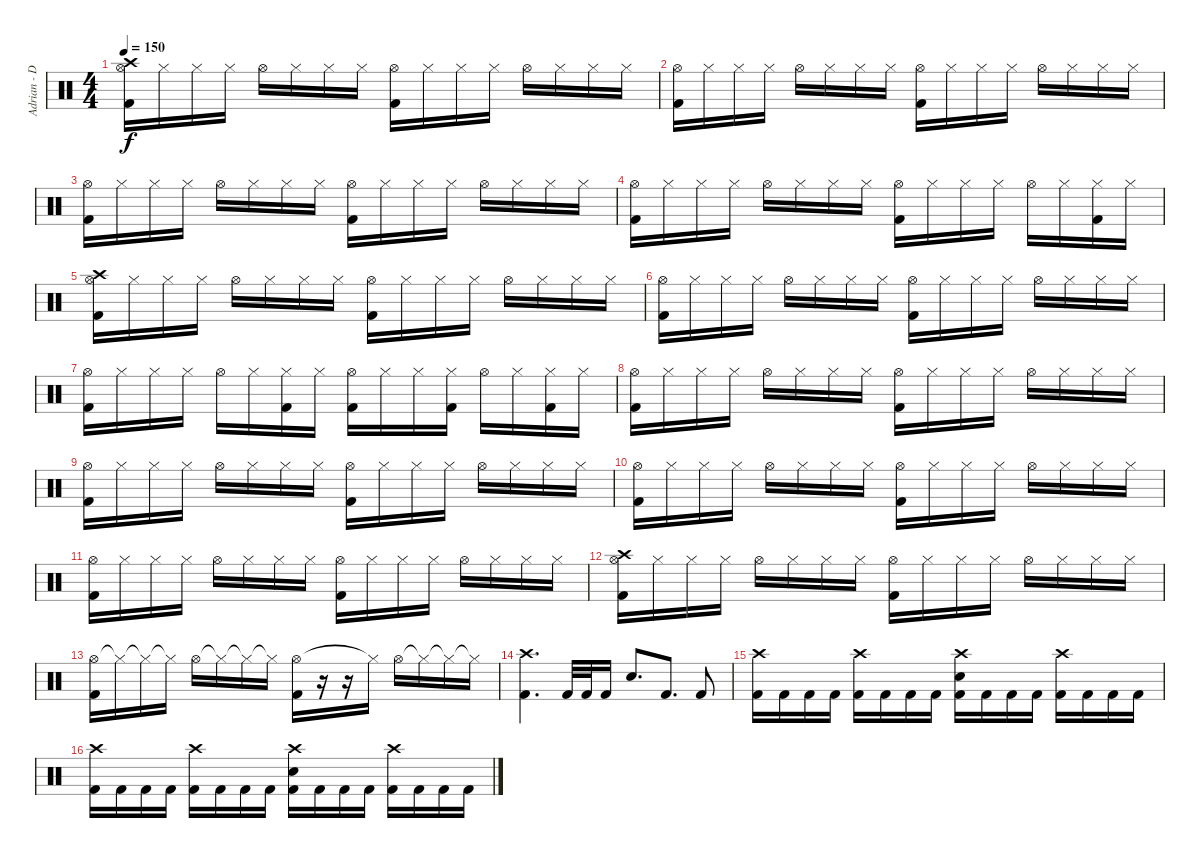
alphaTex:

\track ("Adrian - Drums" "Adrian - D") {instrument percussion}
\staff {score}
\articulation defaults
\ts (4 4)
\tempo 150
\clef neutral
\ks c
("Crash high (hit)" "Hi-Hat (open)" "Kick (hit) 2").16{dy f volume 11} "Hi-Hat (closed)".16 "Hi-Hat (closed)".16 "Hi-Hat (closed)".16 "Hi-Hat (open)".16 "Hi-Hat (closed)".16 "Hi-Hat (closed)".16 "Hi-Hat (closed)".16 ("Hi-Hat (open)" "Kick (hit) 2").16 "Hi-Hat (closed)".16 "Hi-Hat (closed)".16 "Hi-Hat (closed)".16 "Hi-Hat (open)".16 "Hi-Hat (closed)".16 "Hi-Hat (closed)".16 "Hi-Hat (closed)".16 |
("Hi-Hat (open)" "Kick (hit) 2").16 "Hi-Hat (closed)".16 "Hi-Hat (closed)".16 "Hi-Hat (closed)".16 "Hi-Hat (open)".16 "Hi-Hat (closed)".16 "Hi-Hat (closed)".16 "Hi-Hat (closed)".16 ("Hi-Hat (open)" "Kick (hit) 2").16 "Hi-Hat (closed)".16 "Hi-Hat (closed)".16 "Hi-Hat (closed)".16 "Hi-Hat (open)".16 "Hi-Hat (closed)".16 "Hi-Hat (closed)".16 "Hi-Hat (closed)".16 |
("Hi-Hat (open)" "Kick (hit) 2").16 "Hi-Hat (closed)".16 "Hi-Hat (closed)".16 "Hi-Hat (closed)".16 "Hi-Hat (open)".16 "Hi-Hat (closed)".16 "Hi-Hat (closed)".16 "Hi-Hat (closed)".16 ("Hi-Hat (open)" "Kick (hit) 2").16 "Hi-Hat (closed)".16 "Hi-Hat (closed)".16 "Hi-Hat (closed)".16 "Hi-Hat (open)".16 "Hi-Hat (closed)".16 "Hi-Hat (closed)".16 "Hi-Hat (closed)".16 |
("Hi-Hat (open)" "Kick (hit) 2").16 "Hi-Hat (closed)".16 "Hi-Hat (closed)".16 "Hi-Hat (closed)".16 "Hi-Hat (open)".16 "Hi-Hat (closed)".16 "Hi-Hat (closed)".16 "Hi-Hat (closed)".16 ("Hi-Hat (open)" "Kick (hit) 2").16 "Hi-Hat (closed)".16 "Hi-Hat (closed)".16 "Hi-Hat (closed)".16 "Hi-Hat (open)".16 "Hi-Hat (closed)".16 ("Hi-Hat (closed)" "Kick (hit) 2").16 "Hi-Hat (closed)".16 |
("Crash high (hit)" "Hi-Hat (open)" "Kick (hit) 2").16 "Hi-Hat (closed)".16 "Hi-Hat (closed)".16 "Hi-Hat (closed)".16 "Hi-Hat (open)".16 "Hi-Hat (closed)".16 "Hi-Hat (closed)".16 "Hi-Hat (closed)".16 ("Hi-Hat (open)" "Kick (hit) 2").16 "Hi-Hat (closed)".16 "Hi-Hat (closed)".16 "Hi-Hat (closed)".16 "Hi-Hat (open)".16 "Hi-Hat (closed)".16 "Hi-Hat (closed)".16 "Hi-Hat (closed)".16 |
("Hi-Hat (open)" "Kick (hit) 2").16 "Hi-Hat (closed)".16 "Hi-Hat (closed)".16 "Hi-Hat (closed)".16 "Hi-Hat (open)".16 "Hi-Hat (closed)".16 "Hi-Hat (closed)".16 "Hi-Hat (closed)".16 ("Hi-Hat (open)" "Kick (hit) 2").16 "Hi-Hat (closed)".16 "Hi-Hat (closed)".16 "Hi-Hat (closed)".16 "Hi-Hat (open)".16 "Hi-Hat (closed)".16 "Hi-Hat (closed)".16 "Hi-Hat (closed)".16 |
("Hi-Hat (open)" "Kick (hit) 2").16 "Hi-Hat (closed)".16 "Hi-Hat (closed)".16 "Hi-Hat (closed)".16 "Hi-Hat (open)".16 "Hi-Hat (closed)".16 ("Hi-Hat (closed)" "Kick (hit) 2").16 "Hi-Hat (closed)".16 ("Hi-Hat (open)" "Kick (hit) 2").16 "Hi-Hat (closed)".16 "Hi-Hat (closed)".16 ("Hi-Hat (closed)" "Kick (hit) 2").16 "Hi-Hat (open)".16 "Hi-Hat (closed)".16 ("Hi-Hat (closed)" "Kick (hit) 2").16 "Hi-Hat (closed)".16 |
("Hi-Hat (open)" "Kick (hit) 2").16 "Hi-Hat (closed)".16 "Hi-Hat (closed)".16 "Hi-Hat (closed)".16 "Hi-Hat (open)".16 "Hi-Hat (closed)".16 "Hi-Hat (closed)".16 "Hi-Hat (closed)".16 ("Hi-Hat (open)" "Kick (hit) 2").16 "Hi-Hat (closed)".16 "Hi-Hat (closed)".16 "Hi-Hat (closed)".16 "Hi-Hat (open)".16 "Hi-Hat (closed)".16 "Hi-Hat (closed)".16 "Hi-Hat (closed)".16 |
("Hi-Hat (open)" "Kick (hit) 2").16 "Hi-Hat (closed)".16 "Hi-Hat (closed)".16 "Hi-Hat (closed)".16 "Hi-Hat (open)".16 "Hi-Hat (closed)".16 "Hi-Hat (closed)".16 "Hi-Hat (closed)".16 ("Hi-Hat (open)" "Kick (hit) 2").16 "Hi-Hat (closed)".16 "Hi-Hat (closed)".16 "Hi-Hat (closed)".16 "Hi-Hat (open)".16 "Hi-Hat (closed)".16 "Hi-Hat (closed)".16 "Hi-Hat (closed)".16 |
("Hi-Hat (open)" "Kick (hit) 2").16 "Hi-Hat (closed)".16 "Hi-Hat (closed)".16 "Hi-Hat (closed)".16 "Hi-Hat (open)".16 "Hi-Hat (closed)".16 "Hi-Hat (closed)".16 "Hi-Hat (closed)".16 ("Hi-Hat (open)" "Kick (hit) 2").16 "Hi-Hat (closed)".16 "Hi-Hat (closed)".16 "Hi-Hat (closed)".16 "Hi-Hat (open)".16 "Hi-Hat (closed)".16 "Hi-Hat (closed)".16 "Hi-Hat (closed)".16 |
("Hi-Hat (open)" "Kick (hit) 2").16 "Hi-Hat (closed)".16 "Hi-Hat (closed)".16 "Hi-Hat (closed)".16 "Hi-Hat (open)".16 "Hi-Hat (closed)".16 "Hi-Hat (closed)".16 "Hi-Hat (closed)".16 ("Hi-Hat (open)" "Kick (hit) 2").16 "Hi-Hat (closed)".16 "Hi-Hat (closed)".16 "Hi-Hat (closed)".16 "Hi-Hat (open)".16 "Hi-Hat (closed)".16 "Hi-Hat (closed)".16 "Hi-Hat (closed)".16 |
("Crash high (hit)" "Hi-Hat (open)" "Kick (hit) 2").16 "Hi-Hat (closed)".16 "Hi-Hat (closed)".16 "Hi-Hat (closed)".16 "Hi-Hat (open)".16 "Hi-Hat (closed)".16 "Hi-Hat (closed)".16 "Hi-Hat (closed)".16 ("Hi-Hat (open)" "Kick (hit) 2").16 "Hi-Hat (closed)".16 "Hi-Hat (closed)".16 "Hi-Hat (closed)".16 "Hi-Hat (open)".16 "Hi-Hat (closed)".16 "Hi-Hat (closed)".16 "Hi-Hat (closed)".16 |
("Hi-Hat (open)" "Kick (hit) 2").16{volume 15} "Hi-Hat (closed)"{t}.16 "Hi-Hat (closed)"{t}.16 "Hi-Hat (closed)"{t}.16 "Hi-Hat (open)".16 "Hi-Hat (closed)"{t}.16 "Hi-Hat (closed)"{t}.16 "Hi-Hat (closed)"{t}.16 ("Hi-Hat (open)" "Kick (hit) 2").16 r.16 r.16 "Hi-Hat (closed)"{t}.16 "Hi-Hat (open)".16 "Hi-Hat (closed)"{t}.16 "Hi-Hat (closed)"{t}.16 "Hi-Hat (closed)"{t}.16 |
("Crash high (hit)" "Kick (hit) 2").4{d} "Kick (hit) 2".32 "Kick (hit) 2".32 "Kick (hit) 2".16 "Electric Snare (hit)".8{d} "Kick (hit) 2".8{d} "Kick (hit) 2".8 |
("Crash high (hit)" "Kick (hit) 2").16 "Kick (hit) 2".16 "Kick (hit) 2".16 "Kick (hit) 2".16 ("Crash high (hit)" "Kick (hit) 2").16 "Kick (hit) 2".16 "Kick (hit) 2".16 "Kick (hit) 2".16 ("Crash high (hit)" "Electric Snare (hit)" "Kick (hit) 2").16 "Kick (hit) 2".16 "Kick (hit) 2".16 "Kick (hit) 2".16 ("Crash high (hit)" "Kick (hit) 2").16 "Kick (hit) 2".16 "Kick (hit) 2".16 "Kick (hit) 2".16 |
("Crash high (hit)" "Kick (hit) 2").16 "Kick (hit) 2".16 "Kick (hit) 2".16 "Kick (hit) 2".16 ("Crash high (hit)" "Kick (hit) 2").16 "Kick (hit) 2".16 "Kick (hit) 2".16 "Kick (hit) 2".16 ("Crash high (hit)" "Electric Snare (hit)" "Kick (hit) 2").16 "Kick (hit) 2".16 "Kick (hit) 2".16 "Kick (hit) 2".16 ("Crash high (hit)" "Kick (hit) 2").16 "Kick (hit) 2".16 "Kick (hit) 2".16 "Kick (hit) 2".16
